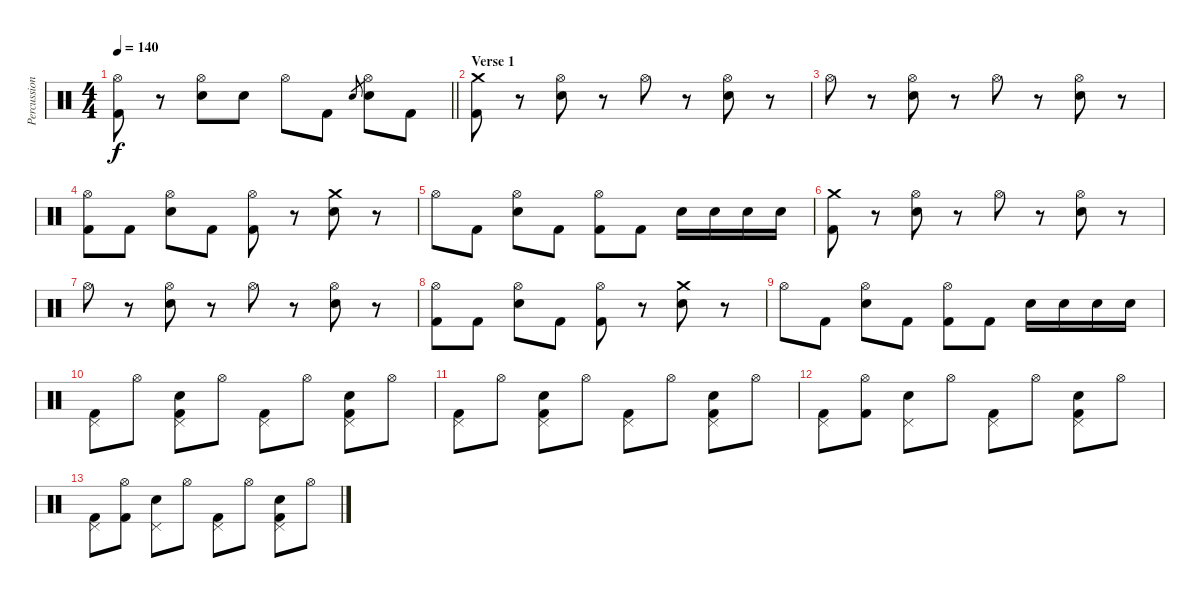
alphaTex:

\track ("Percussion" "Percussion") {instrument percussion}
\staff {score}
\articulation defaults
\ts (4 4)
\tempo 140
\clef neutral
\barLineRight lightlight
\ks c
("Hi-Hat (open)" "Kick (hit) 2").8{dy f} r.8 ("Hi-Hat (open)" "Electric Snare (hit)").8 "Electric Snare (hit)".8 "Hi-Hat (open)".8 "Kick (hit) 2".8 "Snare (hit)".8{gr} ("Hi-Hat (open)" "Electric Snare (hit)").8 "Kick (hit) 2".8 |
\section ("" "Verse 1")
("Crash medium (hit)" "Kick (hit) 2").8 r.8 ("Hi-Hat (open)" "Electric Snare (hit)").8 r.8 "Hi-Hat (open)".8 r.8 ("Hi-Hat (open)" "Electric Snare (hit)").8 r.8 |
"Hi-Hat (open)".8 r.8 ("Hi-Hat (open)" "Electric Snare (hit)").8 r.8 "Hi-Hat (open)".8 r.8 ("Hi-Hat (open)" "Electric Snare (hit)").8 r.8 |
("Hi-Hat (open)" "Kick (hit) 2").8 "Kick (hit) 2".8 ("Hi-Hat (open)" "Electric Snare (hit)").8 "Kick (hit) 2".8 ("Hi-Hat (open)" "Kick (hit) 2").8 r.8 ("Crash medium (hit)" "Electric Snare (hit)").8 r.8 |
"Hi-Hat (open)".8 "Kick (hit) 2".8 ("Hi-Hat (open)" "Electric Snare (hit)").8 "Kick (hit) 2".8 ("Hi-Hat (open)" "Kick (hit) 2").8 "Kick (hit) 2".8 "Electric Snare (hit)".16 "Electric Snare (hit)".16 "Electric Snare (hit)".16 "Electric Snare (hit)".16 |
("Crash medium (hit)" "Kick (hit) 2").8 r.8 ("Hi-Hat (open)" "Electric Snare (hit)").8 r.8 "Hi-Hat (open)".8 r.8 ("Hi-Hat (open)" "Electric Snare (hit)").8 r.8 |
"Hi-Hat (open)".8 r.8 ("Hi-Hat (open)" "Electric Snare (hit)").8 r.8 "Hi-Hat (open)".8 r.8 ("Hi-Hat (open)" "Electric Snare (hit)").8 r.8 |
("Hi-Hat (open)" "Kick (hit) 2").8 "Kick (hit) 2".8 ("Hi-Hat (open)" "Electric Snare (hit)").8 "Kick (hit) 2".8 ("Hi-Hat (open)" "Kick (hit) 2").8 r.8 ("Crash medium (hit)" "Electric Snare (hit)").8 r.8 |
"Hi-Hat (open)".8 "Kick (hit) 2".8 ("Hi-Hat (open)" "Electric Snare (hit)").8 "Kick (hit) 2".8 ("Hi-Hat (open)" "Kick (hit) 2").8 "Kick (hit) 2".8 "Electric Snare (hit)".16 "Electric Snare (hit)".16 "Electric Snare (hit)".16 "Electric Snare (hit)".16 |
("Pedal Hi-Hat (hit)" "Kick (hit) 2").8 "Hi-Hat (open)".8 ("Pedal Hi-Hat (hit)" "Electric Snare (hit)" "Kick (hit) 2").8 "Hi-Hat (open)".8 ("Pedal Hi-Hat (hit)" "Kick (hit) 2").8 "Hi-Hat (open)".8 ("Pedal Hi-Hat (hit)" "Electric Snare (hit)" "Kick (hit) 2").8 "Hi-Hat (open)".8 |
("Pedal Hi-Hat (hit)" "Kick (hit) 2").8 "Hi-Hat (open)".8 ("Pedal Hi-Hat (hit)" "Electric Snare (hit)" "Kick (hit) 2").8 "Hi-Hat (open)".8 ("Pedal Hi-Hat (hit)" "Kick (hit) 2").8 "Hi-Hat (open)".8 ("Pedal Hi-Hat (hit)" "Electric Snare (hit)" "Kick (hit) 2").8 "Hi-Hat (open)".8 |
("Pedal Hi-Hat (hit)" "Kick (hit) 2").8 ("Hi-Hat (open)" "Kick (hit) 2").8 ("Pedal Hi-Hat (hit)" "Electric Snare (hit)").8 "Hi-Hat (open)".8 ("Pedal Hi-Hat (hit)" "Kick (hit) 2").8 "Hi-Hat (open)".8 ("Pedal Hi-Hat (hit)" "Electric Snare (hit)" "Kick (hit) 2").8 "Hi-Hat (open)".8 |
("Pedal Hi-Hat (hit)" "Kick (hit) 2").8 ("Hi-Hat (open)" "Kick (hit) 2").8 ("Pedal Hi-Hat (hit)" "Electric Snare (hit)").8 "Hi-Hat (open)".8 ("Pedal Hi-Hat (hit)" "Kick (hit) 2").8 "Hi-Hat (open)".8 ("Pedal Hi-Hat (hit)" "Electric Snare (hit)" "Kick (hit) 2").8 "Hi-Hat (open)".8
